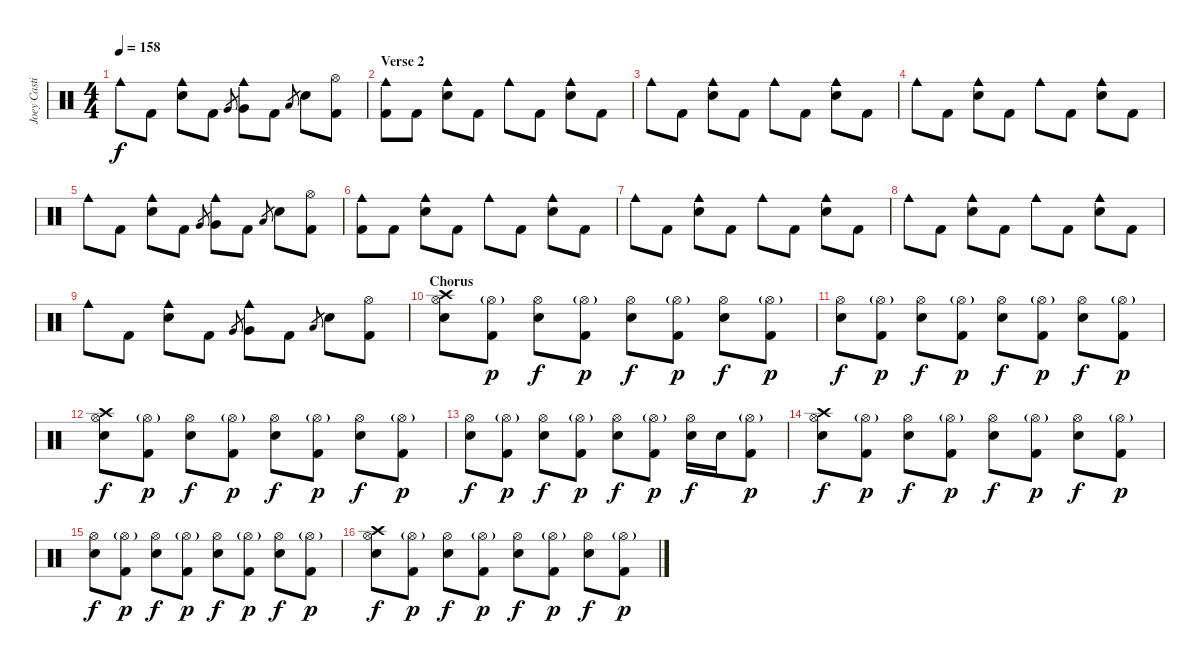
\track ("Joey Castillo" "Joey Casti") {instrument percussion}
\staff {score}
\articulation defaults
\ts (4 4)
\tempo 158
\clef neutral
\ks c "Cowbell medium (hit)".8{dy f} "Kick (hit) 2".8
("Cowbell medium (hit)" "Electric Snare (hit)").8 "Kick (hit) 2".8 "Very Low Tom (hit)".8{gr} ("Cowbell medium (hit)" "Very Low Tom (hit)").8 "Kick (hit) 2".8 "Low Floor Tom (hit)".8{gr} "Electric Snare (hit)".8 ("Hi-Hat (open)" "Kick (hit) 2").8 |
\section ("" "Verse 2")
("Cowbell medium (hit)" "Kick (hit) 2").8 "Kick (hit) 2".8 ("Cowbell medium (hit)" "Electric Snare (hit)").8 "Kick (hit) 2".8 "Cowbell medium (hit)".8 "Kick (hit) 2".8 ("Cowbell medium (hit)" "Electric Snare (hit)").8 "Kick (hit) 2".8 |
"Cowbell medium (hit)".8 "Kick (hit) 2".8 ("Cowbell medium (hit)" "Electric Snare (hit)").8 "Kick (hit) 2".8 "Cowbell medium (hit)".8 "Kick (hit) 2".8 ("Cowbell medium (hit)" "Electric Snare (hit)").8 "Kick (hit) 2".8 |
"Cowbell medium (hit)".8 "Kick (hit) 2".8 ("Cowbell medium (hit)" "Electric Snare (hit)").8 "Kick (hit) 2".8 "Cowbell medium (hit)".8 "Kick (hit) 2".8 ("Cowbell medium (hit)" "Electric Snare (hit)").8 "Kick (hit) 2".8 |
"Cowbell medium (hit)".8 "Kick (hit) 2".8 ("Cowbell medium (hit)" "Electric Snare (hit)").8 "Kick (hit) 2".8 "Very Low Tom (hit)".8{gr} ("Cowbell medium (hit)" "Very Low Tom (hit)").8 "Kick (hit) 2".8 "Low Floor Tom (hit)".8{gr} "Electric Snare (hit)".8 ("Hi-Hat (open)" "Kick (hit) 2").8 |
("Cowbell medium (hit)" "Kick (hit) 2").8 "Kick (hit) 2".8 ("Cowbell medium (hit)" "Electric Snare (hit)").8 "Kick (hit) 2".8 "Cowbell medium (hit)".8 "Kick (hit) 2".8 ("Cowbell medium (hit)" "Electric Snare (hit)").8 "Kick (hit) 2".8 |
"Cowbell medium (hit)".8 "Kick (hit) 2".8 ("Cowbell medium (hit)" "Electric Snare (hit)").8 "Kick (hit) 2".8 "Cowbell medium (hit)".8 "Kick (hit) 2".8 ("Cowbell medium (hit)" "Electric Snare (hit)").8 "Kick (hit) 2".8 |
"Cowbell medium (hit)".8 "Kick (hit) 2".8 ("Cowbell medium (hit)" "Electric Snare (hit)").8 "Kick (hit) 2".8 "Cowbell medium (hit)".8 "Kick (hit) 2".8 ("Cowbell medium (hit)" "Electric Snare (hit)").8 "Kick (hit) 2".8 |
"Cowbell medium (hit)".8 "Kick (hit) 2".8 ("Cowbell medium (hit)" "Electric Snare (hit)").8 "Kick (hit) 2".8 "Very Low Tom (hit)".8{gr} ("Cowbell medium (hit)" "Very Low Tom (hit)").8 "Kick (hit) 2".8 "Low Floor Tom (hit)".8{gr} "Electric Snare (hit)".8 ("Hi-Hat (open)" "Kick (hit) 2").8 |
\section ("" "Chorus")
("Hi-Hat (open)" "Crash high (hit)" "Electric Snare (hit)").8 ("Hi-Hat (open)"{g} "Kick (hit) 2").8{dy p} ("Hi-Hat (open)" "Electric Snare (hit)").8{dy f} ("Hi-Hat (open)"{g} "Kick (hit) 2").8{dy p} ("Hi-Hat (open)" "Electric Snare (hit)").8{dy f} ("Hi-Hat (open)"{g} "Kick (hit) 2").8{dy p} ("Hi-Hat (open)" "Electric Snare (hit)").8{dy f} ("Hi-Hat (open)"{g} "Kick (hit) 2").8{dy p} |
("Hi-Hat (open)" "Electric Snare (hit)").8{dy f} ("Hi-Hat (open)"{g} "Kick (hit) 2").8{dy p} ("Hi-Hat (open)" "Electric Snare (hit)").8{dy f} ("Hi-Hat (open)"{g} "Kick (hit) 2").8{dy p} ("Hi-Hat (open)" "Electric Snare (hit)").8{dy f} ("Hi-Hat (open)"{g} "Kick (hit) 2").8{dy p} ("Hi-Hat (open)" "Electric Snare (hit)").8{dy f} ("Hi-Hat (open)"{g} "Kick (hit) 2").8{dy p} |
("Hi-Hat (open)" "Crash high (hit)" "Electric Snare (hit)").8{dy f} ("Hi-Hat (open)"{g} "Kick (hit) 2").8{dy p} ("Hi-Hat (open)" "Electric Snare (hit)").8{dy f} ("Hi-Hat (open)"{g} "Kick (hit) 2").8{dy p} ("Hi-Hat (open)" "Electric Snare (hit)").8{dy f} ("Hi-Hat (open)"{g} "Kick (hit) 2").8{dy p} ("Hi-Hat (open)" "Electric Snare (hit)").8{dy f} ("Hi-Hat (open)"{g} "Kick (hit) 2").8{dy p} |
("Hi-Hat (open)" "Electric Snare (hit)").8{dy f} ("Hi-Hat (open)"{g} "Kick (hit) 2").8{dy p} ("Hi-Hat (open)" "Electric Snare (hit)").8{dy f} ("Hi-Hat (open)"{g} "Kick (hit) 2").8{dy p} ("Hi-Hat (open)" "Electric Snare (hit)").8{dy f} ("Hi-Hat (open)"{g} "Kick (hit) 2").8{dy p} ("Hi-Hat (open)" "Electric Snare (hit)").16{dy f} "Electric Snare (hit)".16 ("Hi-Hat (open)"{g} "Kick (hit) 2").8{dy p} |
("Hi-Hat (open)" "Crash high (hit)" "Electric Snare (hit)").8{dy f} ("Hi-Hat (open)"{g} "Kick (hit) 2").8{dy p} ("Hi-Hat (open)" "Electric Snare (hit)").8{dy f} ("Hi-Hat (open)"{g} "Kick (hit) 2").8{dy p} ("Hi-Hat (open)" "Electric Snare (hit)").8{dy f} ("Hi-Hat (open)"{g} "Kick (hit) 2").8{dy p} ("Hi-Hat (open)" "Electric Snare (hit)").8{dy f} ("Hi-Hat (open)"{g} "Kick (hit) 2").8{dy p} |
("Hi-Hat (open)" "Electric Snare (hit)").8{dy f} ("Hi-Hat (open)"{g} "Kick (hit) 2").8{dy p} ("Hi-Hat (open)" "Electric Snare (hit)").8{dy f} ("Hi-Hat (open)"{g} "Kick (hit) 2").8{dy p} ("Hi-Hat (open)" "Electric Snare (hit)").8{dy f} ("Hi-Hat (open)"{g} "Kick (hit) 2").8{dy p} ("Hi-Hat (open)" "Electric Snare (hit)").8{dy f} ("Hi-Hat (open)"{g} "Kick (hit) 2").8{dy p} |
("Hi-Hat (open)" "Crash high (hit)" "Electric Snare (hit)").8{dy f} ("Hi-Hat (open)"{g} "Kick (hit) 2").8{dy p} ("Hi-Hat (open)" "Electric Snare (hit)").8{dy f} ("Hi-Hat (open)"{g} "Kick (hit) 2").8{dy p} ("Hi-Hat (open)" "Electric Snare (hit)").8{dy f} ("Hi-Hat (open)"{g} "Kick (hit) 2").8{dy p} ("Hi-Hat (open)" "Electric Snare (hit)").8{dy f} ("Hi-Hat (open)"{g} "Kick (hit) 2").8{dy p}
